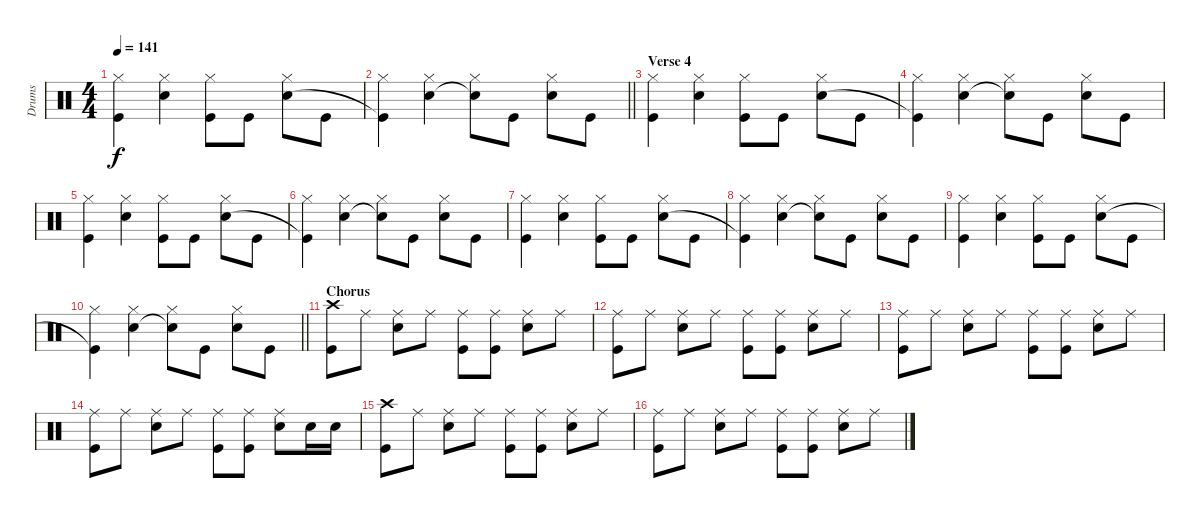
\track ("Drums" "Drums") {instrument percussion}
\staff {score}
\articulation defaults
\ts (4 4)
\tempo 141
\clef neutral
\ks c
("Kick (hit)" "Hi-Hat (closed)").4{dy f} ("Snare (hit) 2" "Hi-Hat (closed)").4 ("Hi-Hat (closed)" "Kick (hit)").8 "Kick (hit)".8 ("Hi-Hat (closed)" "Snare (hit) 2").8 "Kick (hit)".8 |
\barLineRight lightlight
("Hi-Hat (closed)" "Kick (hit)"{t}).4 ("Hi-Hat (closed)" "Snare (hit) 2").4 ("Hi-Hat (closed)" "Snare (hit) 2"{t}).8 "Kick (hit)".8 ("Hi-Hat (closed)" "Snare (hit) 2").8 "Kick (hit)".8 |
\section ("" "Verse 4")
("Kick (hit)" "Hi-Hat (closed)").4 ("Snare (hit) 2" "Hi-Hat (closed)").4 ("Hi-Hat (closed)" "Kick (hit)").8 "Kick (hit)".8 ("Hi-Hat (closed)" "Snare (hit) 2").8 "Kick (hit)".8 |
("Hi-Hat (closed)" "Kick (hit)"{t}).4 ("Hi-Hat (closed)" "Snare (hit) 2").4 ("Hi-Hat (closed)" "Snare (hit) 2"{t}).8 "Kick (hit)".8 ("Hi-Hat (closed)" "Snare (hit) 2").8 "Kick (hit)".8 |
("Kick (hit)" "Hi-Hat (closed)").4 ("Snare (hit) 2" "Hi-Hat (closed)").4 ("Hi-Hat (closed)" "Kick (hit)").8 "Kick (hit)".8 ("Hi-Hat (closed)" "Snare (hit) 2").8 "Kick (hit)".8 |
("Hi-Hat (closed)" "Kick (hit)"{t}).4 ("Hi-Hat (closed)" "Snare (hit) 2").4 ("Hi-Hat (closed)" "Snare (hit) 2"{t}).8 "Kick (hit)".8 ("Hi-Hat (closed)" "Snare (hit) 2").8 "Kick (hit)".8 |
("Kick (hit)" "Hi-Hat (closed)").4 ("Snare (hit) 2" "Hi-Hat (closed)").4 ("Hi-Hat (closed)" "Kick (hit)").8 "Kick (hit)".8 ("Hi-Hat (closed)" "Snare (hit) 2").8 "Kick (hit)".8 |
("Hi-Hat (closed)" "Kick (hit)"{t}).4 ("Hi-Hat (closed)" "Snare (hit) 2").4 ("Hi-Hat (closed)" "Snare (hit) 2"{t}).8 "Kick (hit)".8 ("Hi-Hat (closed)" "Snare (hit) 2").8 "Kick (hit)".8 |
("Kick (hit)" "Hi-Hat (closed)").4 ("Snare (hit) 2" "Hi-Hat (closed)").4 ("Hi-Hat (closed)" "Kick (hit)").8 "Kick (hit)".8 ("Hi-Hat (closed)" "Snare (hit) 2").8 "Kick (hit)".8 |
\barLineRight lightlight
("Hi-Hat (closed)" "Kick (hit)"{t}).4 ("Hi-Hat (closed)" "Snare (hit) 2").4 ("Hi-Hat (closed)" "Snare (hit) 2"{t}).8 "Kick (hit)".8 ("Hi-Hat (closed)" "Snare (hit) 2").8 "Kick (hit)".8 |
\section ("" "Chorus")
("Crash high (hit)" "Kick (hit)").8 "Ride (middle)".8 ("Ride (middle)" "Snare (hit) 2").8 "Ride (middle)".8 ("Ride (middle)" "Kick (hit)").8 ("Ride (middle)" "Kick (hit)").8 ("Ride (middle)" "Snare (hit) 2").8 "Ride (middle)".8 |
("Ride (middle)" "Kick (hit)").8 "Ride (middle)".8 ("Ride (middle)" "Snare (hit) 2").8 "Ride (middle)".8 ("Ride (middle)" "Kick (hit)").8 ("Ride (middle)" "Kick (hit)").8 ("Ride (middle)" "Snare (hit) 2").8 "Ride (middle)".8 |
("Ride (middle)" "Kick (hit)").8 "Ride (middle)".8 ("Ride (middle)" "Snare (hit) 2").8 "Ride (middle)".8 ("Ride (middle)" "Kick (hit)").8 ("Ride (middle)" "Kick (hit)").8 ("Ride (middle)" "Snare (hit) 2").8 "Ride (middle)".8 |
("Ride (middle)" "Kick (hit)").8 "Ride (middle)".8 ("Ride (middle)" "Snare (hit) 2").8 "Ride (middle)".8 ("Ride (middle)" "Kick (hit)").8 ("Ride (middle)" "Kick (hit)").8 ("Ride (middle)" "Snare (hit) 2").8 "Snare (hit) 2".16 "Snare (hit) 2".16 |
("Crash high (hit)" "Kick (hit)").8 "Ride (middle)".8 ("Ride (middle)" "Snare (hit) 2").8 "Ride (middle)".8 ("Ride (middle)" "Kick (hit)").8 ("Ride (middle)" "Kick (hit)").8 ("Ride (middle)" "Snare (hit) 2").8 "Ride (middle)".8 |
("Ride (middle)" "Kick (hit)").8 "Ride (middle)".8 ("Ride (middle)" "Snare (hit) 2").8 "Ride (middle)".8 ("Ride (middle)" "Kick (hit)").8 ("Ride (middle)" "Kick (hit)").8 ("Ride (middle)" "Snare (hit) 2").8 "Ride (middle)".8
